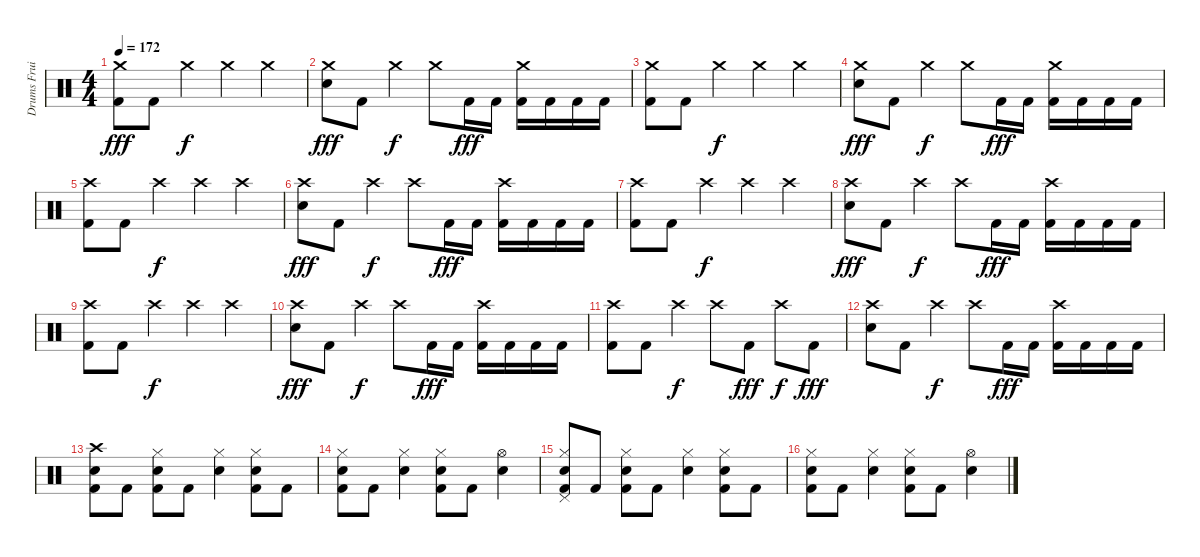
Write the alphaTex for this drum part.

\track ("Drums Fruity Lexia" "Drums Frui") {instrument percussion}
\staff {score}
\articulation defaults
\ts (4 4)
\tempo 172
\clef neutral
\ks c
("Crash medium (hit)" "Kick (hit) 2").8{dy fff} "Kick (hit) 2".8 "Crash medium (hit)".4{dy f} "Crash medium (hit)".4 "Crash medium (hit)".4 |
("Crash medium (hit)" "Electric Snare (hit)").8{dy fff} "Kick (hit) 2".8 "Crash medium (hit)".4{dy f} "Crash medium (hit)".8 "Kick (hit) 2".16{dy fff} "Kick (hit) 2".16 ("Crash medium (hit)" "Kick (hit) 2").16 "Kick (hit) 2".16 "Kick (hit) 2".16 "Kick (hit) 2".16 |
("Crash medium (hit)" "Kick (hit) 2").8 "Kick (hit) 2".8 "Crash medium (hit)".4{dy f} "Crash medium (hit)".4 "Crash medium (hit)".4 |
("Crash medium (hit)" "Electric Snare (hit)").8{dy fff} "Kick (hit) 2".8 "Crash medium (hit)".4{dy f} "Crash medium (hit)".8 "Kick (hit) 2".16{dy fff} "Kick (hit) 2".16 ("Crash medium (hit)" "Kick (hit) 2").16 "Kick (hit) 2".16 "Kick (hit) 2".16 "Kick (hit) 2".16 |
("Crash high (hit)" "Kick (hit) 2").8 "Kick (hit) 2".8 "Crash high (hit)".4{dy f} "Crash high (hit)".4 "Crash high (hit)".4 |
("Crash high (hit)" "Electric Snare (hit)").8{dy fff} "Kick (hit) 2".8 "Crash high (hit)".4{dy f} "Crash high (hit)".8 "Kick (hit) 2".16{dy fff} "Kick (hit) 2".16 ("Crash high (hit)" "Kick (hit) 2").16 "Kick (hit) 2".16 "Kick (hit) 2".16 "Kick (hit) 2".16 |
("Crash high (hit)" "Kick (hit) 2").8 "Kick (hit) 2".8 "Crash high (hit)".4{dy f} "Crash high (hit)".4 "Crash high (hit)".4 |
("Crash high (hit)" "Electric Snare (hit)").8{dy fff} "Kick (hit) 2".8 "Crash high (hit)".4{dy f} "Crash high (hit)".8 "Kick (hit) 2".16{dy fff} "Kick (hit) 2".16 ("Crash high (hit)" "Kick (hit) 2").16 "Kick (hit) 2".16 "Kick (hit) 2".16 "Kick (hit) 2".16 |
("Crash high (hit)" "Kick (hit) 2").8 "Kick (hit) 2".8 "Crash high (hit)".4{dy f} "Crash high (hit)".4 "Crash high (hit)".4 |
("Crash high (hit)" "Electric Snare (hit)").8{dy fff} "Kick (hit) 2".8 "Crash high (hit)".4{dy f} "Crash high (hit)".8 "Kick (hit) 2".16{dy fff} "Kick (hit) 2".16 ("Crash high (hit)" "Kick (hit) 2").16 "Kick (hit) 2".16 "Kick (hit) 2".16 "Kick (hit) 2".16 |
("Crash high (hit)" "Kick (hit) 2").8 "Kick (hit) 2".8 "Crash high (hit)".4{dy f} "Crash high (hit)".8 "Kick (hit) 2".8{dy fff} "Crash high (hit)".8{dy f} "Kick (hit) 2".8{dy fff} |
("Crash high (hit)" "Electric Snare (hit)").8 "Kick (hit) 2".8 "Crash high (hit)".4{dy f} "Crash high (hit)".8 "Kick (hit) 2".16{dy fff} "Kick (hit) 2".16 ("Crash high (hit)" "Kick (hit) 2").16 "Kick (hit) 2".16 "Kick (hit) 2".16 "Kick (hit) 2".16 |
("Crash high (hit)" "Electric Snare (hit)" "Kick (hit) 2").8 "Kick (hit) 2".8 ("Hi-Hat (closed)" "Electric Snare (hit)" "Kick (hit) 2").8 "Kick (hit) 2".8 ("Hi-Hat (closed)" "Electric Snare (hit)").4 ("Hi-Hat (closed)" "Electric Snare (hit)" "Kick (hit) 2").8 "Kick (hit) 2".8 |
("Hi-Hat (closed)" "Electric Snare (hit)" "Kick (hit) 2").8 "Kick (hit) 2".8 ("Hi-Hat (closed)" "Electric Snare (hit)").4 ("Hi-Hat (closed)" "Electric Snare (hit)" "Kick (hit) 2").8 "Kick (hit) 2".8 ("Hi-Hat (open)" "Electric Snare (hit)").4 |
("Hi-Hat (closed)" "Electric Snare (hit)" "Pedal Hi-Hat (hit)" "Kick (hit) 2").8 "Kick (hit) 2".8 ("Hi-Hat (closed)" "Electric Snare (hit)" "Kick (hit) 2").8 "Kick (hit) 2".8 ("Hi-Hat (closed)" "Electric Snare (hit)").4 ("Hi-Hat (closed)" "Electric Snare (hit)" "Kick (hit) 2").8 "Kick (hit) 2".8 |
("Hi-Hat (closed)" "Electric Snare (hit)" "Kick (hit) 2").8 "Kick (hit) 2".8 ("Hi-Hat (closed)" "Electric Snare (hit)").4 ("Hi-Hat (closed)" "Electric Snare (hit)" "Kick (hit) 2").8 "Kick (hit) 2".8 ("Hi-Hat (open)" "Electric Snare (hit)").4
